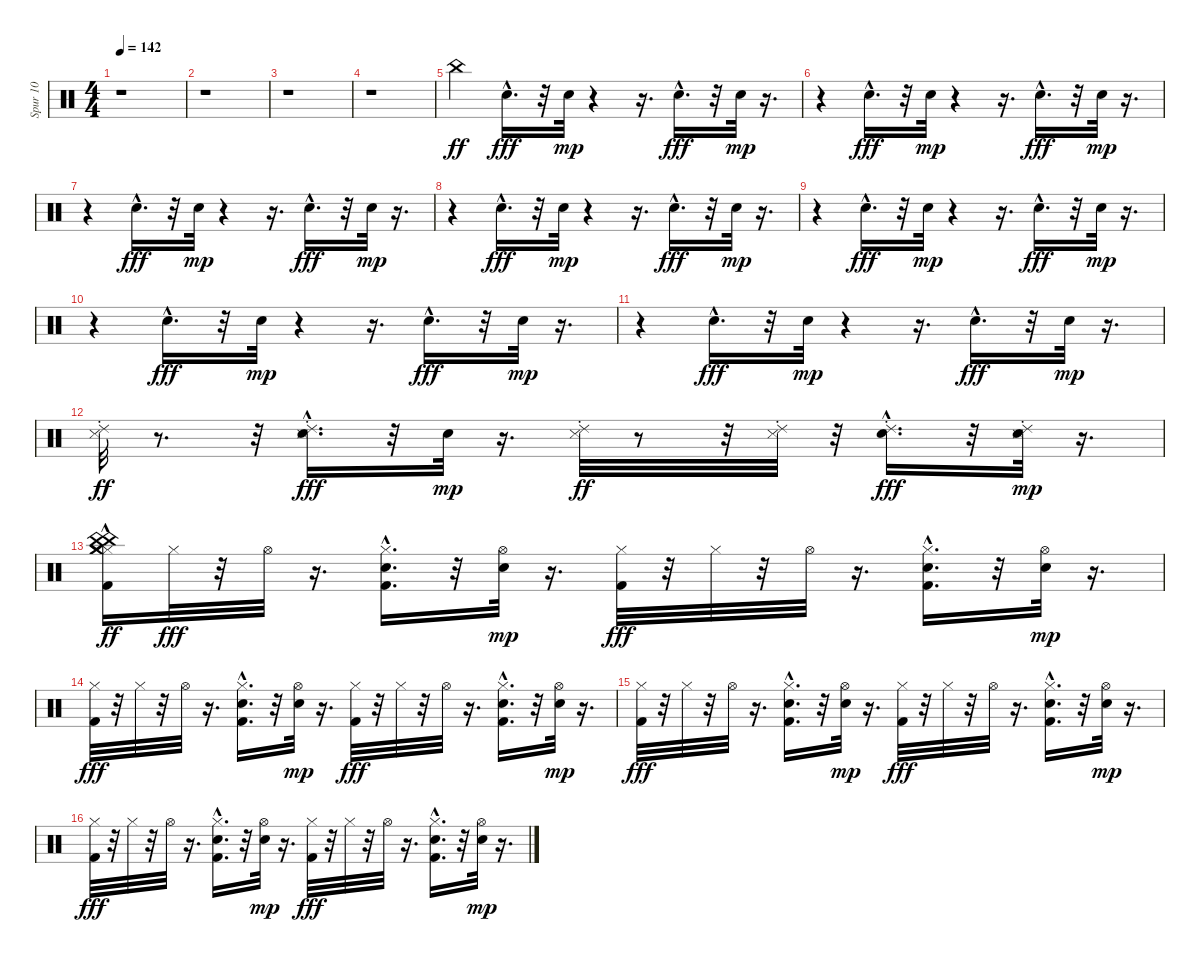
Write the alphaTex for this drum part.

\track ("Spur 10" "Spur 10") {instrument percussion}
\staff {score}
\articulation defaults
\ts (4 4)
\tempo 142
\clef neutral
\ks c
r.1{dy ff} |
r.1 |
r.1 |
r.1 |
"China (hit)".4 "Hand Clap (hit)"{hac}.16{d dy fff balance 16} r.32 "Hand Clap (hit)".32{dy mp balance 0} r.4 r.16{d} "Hand Clap (hit)"{hac}.16{d dy fff balance 16} r.32 "Hand Clap (hit)".32{dy mp balance 0} r.16{d} |
r.4 "Hand Clap (hit)"{hac}.16{d dy fff balance 16} r.32 "Hand Clap (hit)".32{dy mp balance 0} r.4 r.16{d} "Hand Clap (hit)"{hac}.16{d dy fff balance 16} r.32 "Hand Clap (hit)".32{dy mp balance 0} r.16{d} |
r.4 "Hand Clap (hit)"{hac}.16{d dy fff balance 16} r.32 "Hand Clap (hit)".32{dy mp balance 0} r.4 r.16{d} "Hand Clap (hit)"{hac}.16{d dy fff balance 16} r.32 "Hand Clap (hit)".32{dy mp balance 0} r.16{d} |
r.4 "Hand Clap (hit)"{hac}.16{d dy fff balance 16} r.32 "Hand Clap (hit)".32{dy mp balance 0} r.4 r.16{d} "Hand Clap (hit)"{hac}.16{d dy fff balance 16} r.32 "Hand Clap (hit)".32{dy mp balance 0} r.16{d} |
r.4 "Hand Clap (hit)"{hac}.16{d dy fff balance 16} r.32 "Hand Clap (hit)".32{dy mp balance 0} r.4 r.16{d} "Hand Clap (hit)"{hac}.16{d dy fff balance 16} r.32 "Hand Clap (hit)".32{dy mp balance 0} r.16{d} |
r.4 "Hand Clap (hit)"{hac}.16{d dy fff balance 16} r.32 "Hand Clap (hit)".32{dy mp balance 0} r.4 r.16{d} "Hand Clap (hit)"{hac}.16{d dy fff balance 16} r.32 "Hand Clap (hit)".32{dy mp balance 0} r.16{d} |
r.4 "Hand Clap (hit)"{hac}.16{d dy fff balance 16} r.32 "Hand Clap (hit)".32{dy mp balance 0} r.4 r.16{d} "Hand Clap (hit)"{hac}.16{d dy fff balance 16} r.32 "Hand Clap (hit)".32{dy mp balance 0} r.16{d} |
("Metronome (hit)" "Ride (choke) 2").32{dy ff} r.8{d} r.32 ("Ride (choke) 2" "Metronome (hit)" "Hand Clap (hit)"{hac}).16{d dy fff balance 16} r.32 "Hand Clap (hit)".32{dy mp balance 0} r.16{d} ("Ride (choke) 2" "Metronome (hit)").32{dy ff} r.8 r.32 ("Metronome (hit)" "Ride (choke) 2").32 r.32 ("Ride (choke) 2" "Hand Clap (hit)"{hac}).16{d dy fff balance 16} r.32 ("Ride (choke) 2" "Metronome (hit)" "Hand Clap (hit)").32{dy mp balance 0} r.16{d} |
("Kick (hit) 2"{hac} "Hi-Hat (closed)" "China (hit)" "Crash medium (hit)" "China (hit)" "Crash medium (hit)").16{dy ff} "Hi-Hat (closed)".32{dy fff} r.32 "Hi-Hat (open)".32 r.16{d} ("Kick (hit) 2" "Hi-Hat (closed)" "Hand Clap (hit)"{hac}).16{d balance 16} r.32 ("Hi-Hat (open)" "Hand Clap (hit)").32{dy mp balance 0} r.16{d} ("Kick (hit) 2" "Hi-Hat (closed)").32{dy fff} r.32 "Hi-Hat (closed)".32 r.32 "Hi-Hat (open)".32 r.16{d} ("Kick (hit) 2" "Hi-Hat (closed)" "Hand Clap (hit)"{hac}).16{d balance 16} r.32 ("Hi-Hat (open)" "Hand Clap (hit)").32{dy mp balance 0} r.16{d} |
("Kick (hit) 2" "Hi-Hat (closed)").32{dy fff} r.32 "Hi-Hat (closed)".32 r.32 "Hi-Hat (open)".32 r.16{d} ("Kick (hit) 2" "Hi-Hat (closed)" "Hand Clap (hit)"{hac}).16{d balance 16} r.32 ("Hi-Hat (open)" "Hand Clap (hit)").32{dy mp balance 0} r.16{d} ("Kick (hit) 2" "Hi-Hat (closed)").32{dy fff} r.32 "Hi-Hat (closed)".32 r.32 "Hi-Hat (open)".32 r.16{d} ("Kick (hit) 2" "Hi-Hat (closed)" "Hand Clap (hit)"{hac}).16{d balance 16} r.32 ("Hi-Hat (open)" "Hand Clap (hit)").32{dy mp balance 0} r.16{d} |
("Kick (hit) 2" "Hi-Hat (closed)").32{dy fff} r.32 "Hi-Hat (closed)".32 r.32 "Hi-Hat (open)".32 r.16{d} ("Kick (hit) 2" "Hi-Hat (closed)" "Hand Clap (hit)"{hac}).16{d balance 16} r.32 ("Hi-Hat (open)" "Hand Clap (hit)").32{dy mp balance 0} r.16{d} ("Kick (hit) 2" "Hi-Hat (closed)").32{dy fff} r.32 "Hi-Hat (closed)".32 r.32 "Hi-Hat (open)".32 r.16{d} ("Kick (hit) 2" "Hi-Hat (closed)" "Hand Clap (hit)"{hac}).16{d balance 16} r.32 ("Hi-Hat (open)" "Hand Clap (hit)").32{dy mp balance 0} r.16{d} |
("Kick (hit) 2" "Hi-Hat (closed)").32{dy fff} r.32 "Hi-Hat (closed)".32 r.32 "Hi-Hat (open)".32 r.16{d} ("Kick (hit) 2" "Hi-Hat (closed)" "Hand Clap (hit)"{hac}).16{d balance 16} r.32 ("Hi-Hat (open)" "Hand Clap (hit)").32{dy mp balance 0} r.16{d} ("Kick (hit) 2" "Hi-Hat (closed)").32{dy fff} r.32 "Hi-Hat (closed)".32 r.32 "Hi-Hat (open)".32 r.16{d} ("Kick (hit) 2" "Hi-Hat (closed)" "Hand Clap (hit)"{hac}).16{d balance 16} r.32 ("Hi-Hat (open)" "Hand Clap (hit)").32{dy mp balance 0} r.16{d}
